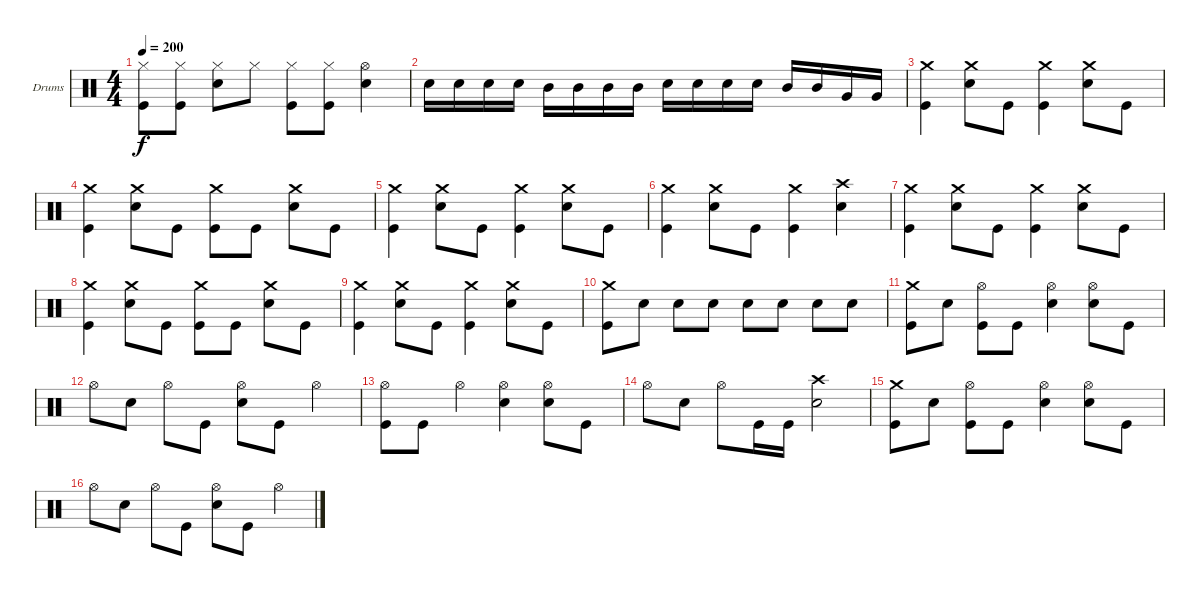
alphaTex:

\bracketExtendMode groupsimilarinstruments
\firstSystemTrackNameOrientation horizontal
\otherSystemsTrackNameOrientation horizontal
\track ("Drumkit" "Drums") {instrument percussion}
\staff {score}
\articulation defaults
\ts (4 4)
\tempo 200
\clef neutral
\ks c
("Hi-Hat (closed)" "Kick (hit)").8{dy f} ("Hi-Hat (closed)" "Kick (hit)").8 ("Hi-Hat (closed)" "Snare (hit) 2").8 "Hi-Hat (closed)".8 ("Hi-Hat (closed)" "Kick (hit)").8 ("Hi-Hat (closed)" "Kick (hit)").8 ("Hi-Hat (open)" "Snare (hit) 2").4 |
"Snare (hit) 2".16 "Snare (hit) 2".16 "Snare (hit) 2".16 "Snare (hit) 2".16 "Mid Tom (hit)".16 "Mid Tom (hit)".16 "Mid Tom (hit)".16 "Mid Tom (hit)".16 "Snare (hit) 2".16 "Snare (hit) 2".16 "Snare (hit) 2".16 "Snare (hit) 2".16 "Mid Tom (hit)".16 "Mid Tom (hit)".16 "Very Low Tom (hit)".16 "Very Low Tom (hit)".16 |
("Crash medium (hit)" "Kick (hit)").4 ("Snare (hit) 2" "Crash medium (hit)").8 "Kick (hit)".8 ("Kick (hit)" "Crash medium (hit)").4 ("Snare (hit) 2" "Crash medium (hit)").8 "Kick (hit)".8 |
("Kick (hit)" "Crash medium (hit)").4 ("Snare (hit) 2" "Crash medium (hit)").8 "Kick (hit)".8 ("Kick (hit)" "Crash medium (hit)").8 "Kick (hit)".8 ("Snare (hit) 2" "Crash medium (hit)").8 "Kick (hit)".8 |
("Crash medium (hit)" "Kick (hit)").4 ("Snare (hit) 2" "Crash medium (hit)").8 "Kick (hit)".8 ("Kick (hit)" "Crash medium (hit)").4 ("Snare (hit) 2" "Crash medium (hit)").8 "Kick (hit)".8 |
("Kick (hit)" "Crash medium (hit)").4 ("Snare (hit) 2" "Crash medium (hit)").8 "Kick (hit)".8 ("Kick (hit)" "Crash medium (hit)").4 ("Crash high (hit)" "Snare (hit) 2").4 |
("Crash medium (hit)" "Kick (hit)").4 ("Snare (hit) 2" "Crash medium (hit)").8 "Kick (hit)".8 ("Kick (hit)" "Crash medium (hit)").4 ("Snare (hit) 2" "Crash medium (hit)").8 "Kick (hit)".8 |
("Kick (hit)" "Crash medium (hit)").4 ("Snare (hit) 2" "Crash medium (hit)").8 "Kick (hit)".8 ("Kick (hit)" "Crash medium (hit)").8 "Kick (hit)".8 ("Snare (hit) 2" "Crash medium (hit)").8 "Kick (hit)".8 |
("Crash medium (hit)" "Kick (hit)").4 ("Snare (hit) 2" "Crash medium (hit)").8 "Kick (hit)".8 ("Kick (hit)" "Crash medium (hit)").4 ("Snare (hit) 2" "Crash medium (hit)").8 "Kick (hit)".8 |
("Kick (hit)" "Crash medium (hit)").8 "Snare (hit) 2".8 "Snare (hit) 2".8 "Snare (hit) 2".8 "Snare (hit) 2".8 "Snare (hit) 2".8 "Snare (hit) 2".8 "Snare (hit) 2".8 |
("Crash medium (hit)" "Kick (hit)").8 "Snare (hit) 2".8 ("Hi-Hat (open)" "Kick (hit)").8 "Kick (hit)".8 ("Hi-Hat (open)" "Snare (hit) 2").4 ("Hi-Hat (open)" "Snare (hit) 2").8 "Kick (hit)".8 |
"Hi-Hat (open)".8 "Snare (hit) 2".8 "Hi-Hat (open)".8 "Kick (hit)".8 ("Hi-Hat (open)" "Snare (hit) 2").8 "Kick (hit)".8 "Hi-Hat (open)".4 |
("Hi-Hat (open)" "Kick (hit)").8 "Kick (hit)".8 "Hi-Hat (open)".4 ("Hi-Hat (open)" "Snare (hit) 2").4 ("Hi-Hat (open)" "Snare (hit) 2").8 "Kick (hit)".8 |
"Hi-Hat (open)".8 "Snare (hit) 2".8 "Hi-Hat (open)".8 "Kick (hit)".16 "Kick (hit)".16 ("Crash high (hit)" "Snare (hit) 2").2 |
("Crash medium (hit)" "Kick (hit)").8 "Snare (hit) 2".8 ("Hi-Hat (open)" "Kick (hit)").8 "Kick (hit)".8 ("Hi-Hat (open)" "Snare (hit) 2").4 ("Hi-Hat (open)" "Snare (hit) 2").8 "Kick (hit)".8 |
"Hi-Hat (open)".8 "Snare (hit) 2".8 "Hi-Hat (open)".8 "Kick (hit)".8 ("Hi-Hat (open)" "Snare (hit) 2").8 "Kick (hit)".8 "Hi-Hat (open)".4
